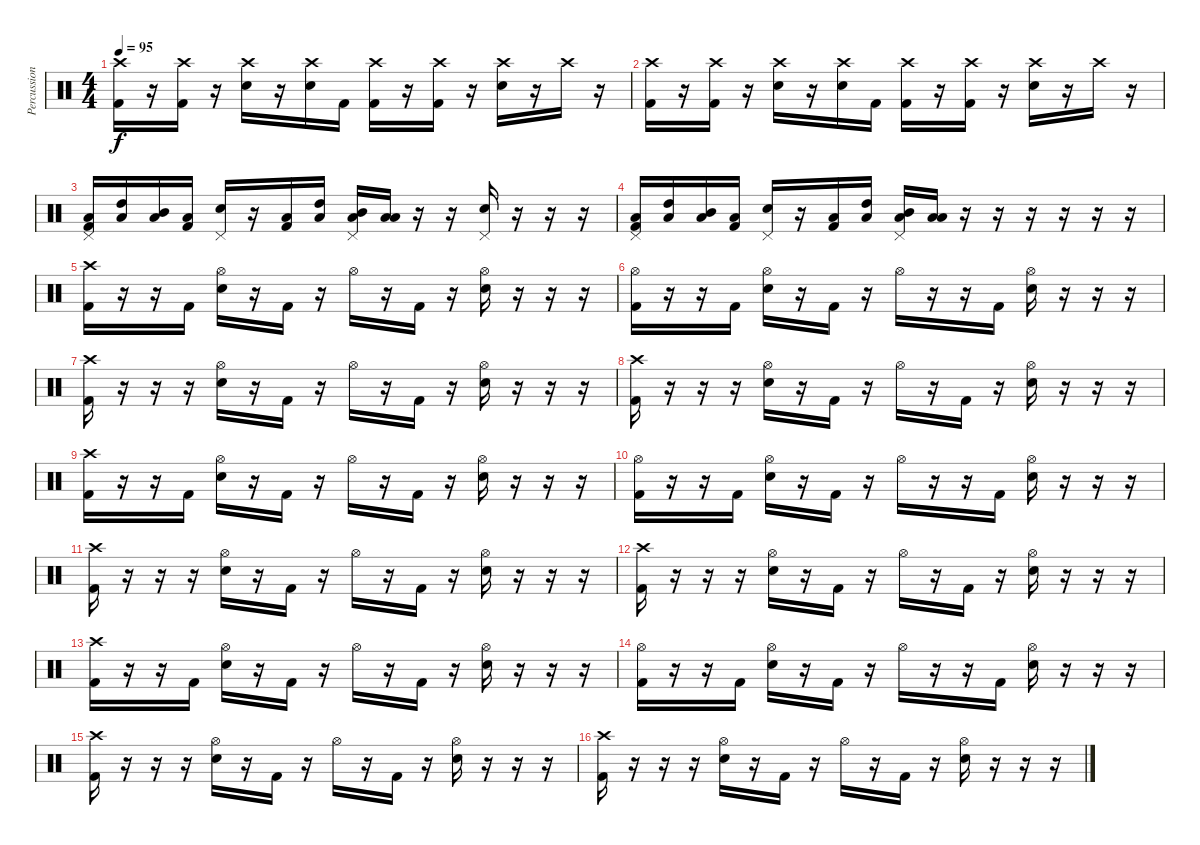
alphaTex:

\track ("Percussion" "Percussion") {instrument percussion}
\staff {score}
\articulation defaults
\ts (4 4)
\tempo 95
\clef neutral
\ks c
("Crash high (hit)" "Kick (hit) 2").16{dy f} r.16 ("Crash high (hit)" "Kick (hit) 2").16 r.16 ("Crash high (hit)" "Snare (hit) 2").16 r.16 ("Crash high (hit)" "Snare (hit) 2").16 "Kick (hit) 2".16 ("Crash high (hit)" "Kick (hit) 2").16 r.16 ("Crash high (hit)" "Kick (hit) 2").16 r.16 ("Crash high (hit)" "Snare (hit) 2").16 r.16 "Crash high (hit)".16 r.16 |
("Crash high (hit)" "Kick (hit) 2").16 r.16 ("Crash high (hit)" "Kick (hit) 2").16 r.16 ("Crash high (hit)" "Snare (hit) 2").16 r.16 ("Crash high (hit)" "Snare (hit) 2").16 "Kick (hit) 2".16 ("Crash high (hit)" "Kick (hit) 2").16 r.16 ("Crash high (hit)" "Kick (hit) 2").16 r.16 ("Crash high (hit)" "Snare (hit) 2").16 r.16 "Crash high (hit)".16 r.16 |
("Pedal Hi-Hat (hit)" "Low Floor Tom (hit)" "Kick (hit) 2").16 ("High Tom (hit)" "Low Floor Tom (hit)").16 ("Mid Tom (hit)" "Low Floor Tom (hit)").16 ("Low Floor Tom (hit)" "Kick (hit) 2").16 ("Pedal Hi-Hat (hit)" "Snare (hit) 2").16 r.16 ("Low Floor Tom (hit)" "Kick (hit) 2").16 ("High Tom (hit)" "Low Floor Tom (hit)").16 ("Pedal Hi-Hat (hit)" "Mid Tom (hit)" "Low Floor Tom (hit)").16 ("Low Floor Tom (hit)" "Low Floor Tom (hit)").16 r.16 r.16 ("Pedal Hi-Hat (hit)" "Snare (hit) 2").16 r.16 r.16 r.16 |
("Pedal Hi-Hat (hit)" "Low Floor Tom (hit)" "Kick (hit) 2").16 ("High Tom (hit)" "Low Floor Tom (hit)").16 ("Mid Tom (hit)" "Low Floor Tom (hit)").16 ("Low Floor Tom (hit)" "Kick (hit) 2").16 ("Pedal Hi-Hat (hit)" "Snare (hit) 2").16 r.16 ("Low Floor Tom (hit)" "Kick (hit) 2").16 ("High Tom (hit)" "Low Floor Tom (hit)").16 ("Pedal Hi-Hat (hit)" "Mid Tom (hit)" "Low Floor Tom (hit)").16 ("Low Floor Tom (hit)" "Low Floor Tom (hit)").16 r.16 r.16 r.16 r.16 r.16 r.16 |
("Crash high (hit)" "Kick (hit) 2").16 r.16 r.16 "Kick (hit) 2".16 ("Hi-Hat (open)" "Snare (hit) 2").16 r.16 "Kick (hit) 2".16 r.16 "Hi-Hat (open)".16 r.16 "Kick (hit) 2".16 r.16 ("Hi-Hat (open)" "Snare (hit) 2").16 r.16 r.16 r.16 |
("Hi-Hat (open)" "Kick (hit) 2").16 r.16 r.16 "Kick (hit) 2".16 ("Hi-Hat (open)" "Snare (hit) 2").16 r.16 "Kick (hit) 2".16 r.16 "Hi-Hat (open)".16 r.16 r.16 "Kick (hit) 2".16 ("Hi-Hat (open)" "Snare (hit) 2").16 r.16 r.16 r.16 |
("Crash high (hit)" "Kick (hit) 2").16 r.16 r.16 r.16 ("Hi-Hat (open)" "Snare (hit) 2").16 r.16 "Kick (hit) 2".16 r.16 "Hi-Hat (open)".16 r.16 "Kick (hit) 2".16 r.16 ("Hi-Hat (open)" "Snare (hit) 2").16 r.16 r.16 r.16 |
("Crash high (hit)" "Kick (hit) 2").16 r.16 r.16 r.16 ("Hi-Hat (open)" "Snare (hit) 2").16 r.16 "Kick (hit) 2".16 r.16 "Hi-Hat (open)".16 r.16 "Kick (hit) 2".16 r.16 ("Hi-Hat (open)" "Snare (hit) 2").16 r.16 r.16 r.16 |
("Crash high (hit)" "Kick (hit) 2").16 r.16 r.16 "Kick (hit) 2".16 ("Hi-Hat (open)" "Snare (hit) 2").16 r.16 "Kick (hit) 2".16 r.16 "Hi-Hat (open)".16 r.16 "Kick (hit) 2".16 r.16 ("Hi-Hat (open)" "Snare (hit) 2").16 r.16 r.16 r.16 |
("Hi-Hat (open)" "Kick (hit) 2").16 r.16 r.16 "Kick (hit) 2".16 ("Hi-Hat (open)" "Snare (hit) 2").16 r.16 "Kick (hit) 2".16 r.16 "Hi-Hat (open)".16 r.16 r.16 "Kick (hit) 2".16 ("Hi-Hat (open)" "Snare (hit) 2").16 r.16 r.16 r.16 |
("Crash high (hit)" "Kick (hit) 2").16 r.16 r.16 r.16 ("Hi-Hat (open)" "Snare (hit) 2").16 r.16 "Kick (hit) 2".16 r.16 "Hi-Hat (open)".16 r.16 "Kick (hit) 2".16 r.16 ("Hi-Hat (open)" "Snare (hit) 2").16 r.16 r.16 r.16 |
("Crash high (hit)" "Kick (hit) 2").16 r.16 r.16 r.16 ("Hi-Hat (open)" "Snare (hit) 2").16 r.16 "Kick (hit) 2".16 r.16 "Hi-Hat (open)".16 r.16 "Kick (hit) 2".16 r.16 ("Hi-Hat (open)" "Snare (hit) 2").16 r.16 r.16 r.16 |
("Crash high (hit)" "Kick (hit) 2").16 r.16 r.16 "Kick (hit) 2".16 ("Hi-Hat (open)" "Snare (hit) 2").16 r.16 "Kick (hit) 2".16 r.16 "Hi-Hat (open)".16 r.16 "Kick (hit) 2".16 r.16 ("Hi-Hat (open)" "Snare (hit) 2").16 r.16 r.16 r.16 |
("Hi-Hat (open)" "Kick (hit) 2").16 r.16 r.16 "Kick (hit) 2".16 ("Hi-Hat (open)" "Snare (hit) 2").16 r.16 "Kick (hit) 2".16 r.16 "Hi-Hat (open)".16 r.16 r.16 "Kick (hit) 2".16 ("Hi-Hat (open)" "Snare (hit) 2").16 r.16 r.16 r.16 |
("Crash high (hit)" "Kick (hit) 2").16 r.16 r.16 r.16 ("Hi-Hat (open)" "Snare (hit) 2").16 r.16 "Kick (hit) 2".16 r.16 "Hi-Hat (open)".16 r.16 "Kick (hit) 2".16 r.16 ("Hi-Hat (open)" "Snare (hit) 2").16 r.16 r.16 r.16 |
("Crash high (hit)" "Kick (hit) 2").16 r.16 r.16 r.16 ("Hi-Hat (open)" "Snare (hit) 2").16 r.16 "Kick (hit) 2".16 r.16 "Hi-Hat (open)".16 r.16 "Kick (hit) 2".16 r.16 ("Hi-Hat (open)" "Snare (hit) 2").16 r.16 r.16 r.16
